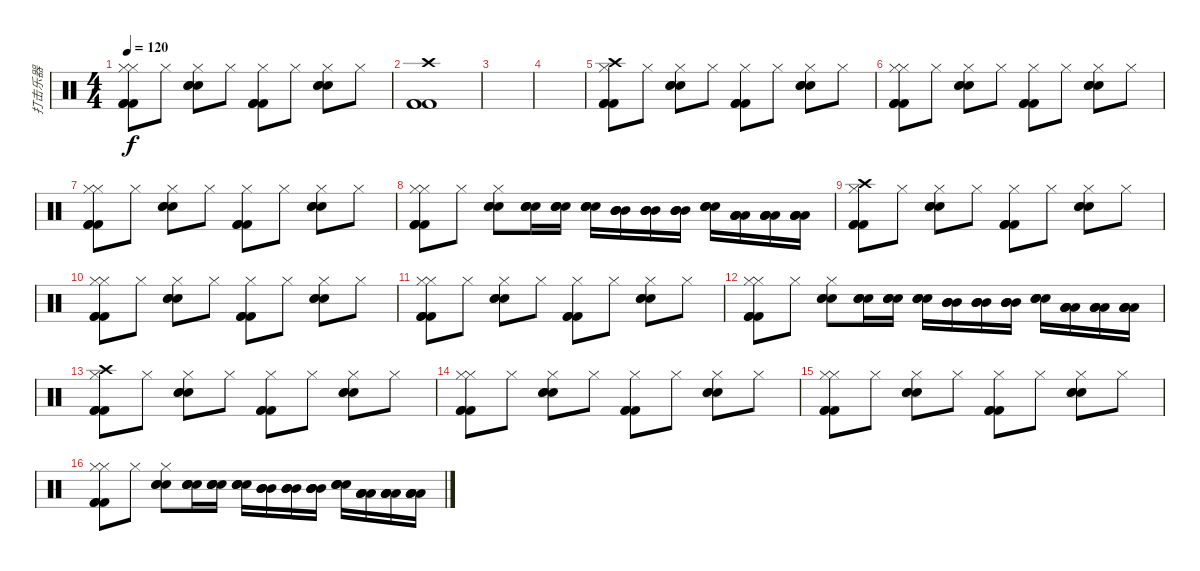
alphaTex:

\track ("打击乐器" "打击乐器") {instrument percussion}
\staff {score}
\articulation defaults
\ts (4 4)
\tempo 120
\clef neutral
\ks c
("Kick (hit) 2" "Kick (hit) 2" "Kick (hit) 2" "Hi-Hat (closed)" "Hi-Hat (closed)").8{dy f} "Hi-Hat (closed)".8 ("Snare (hit) 2" "Snare (hit) 2" "Snare (hit) 2" "Hi-Hat (closed)").8 "Hi-Hat (closed)".8 ("Kick (hit) 2" "Kick (hit) 2" "Kick (hit) 2" "Hi-Hat (closed)").8 "Hi-Hat (closed)".8 ("Snare (hit) 2" "Snare (hit) 2" "Snare (hit) 2" "Hi-Hat (closed)").8 "Hi-Hat (closed)".8 |
("Crash high (hit)" "Kick (hit) 2" "Kick (hit) 2" "Kick (hit) 2").1 |
|
|
("Kick (hit) 2" "Kick (hit) 2" "Kick (hit) 2" "Hi-Hat (closed)" "Crash high (hit)").8 "Hi-Hat (closed)".8 ("Snare (hit) 2" "Snare (hit) 2" "Snare (hit) 2" "Hi-Hat (closed)").8 "Hi-Hat (closed)".8 ("Kick (hit) 2" "Kick (hit) 2" "Kick (hit) 2" "Hi-Hat (closed)").8 "Hi-Hat (closed)".8 ("Snare (hit) 2" "Snare (hit) 2" "Snare (hit) 2" "Hi-Hat (closed)").8 "Hi-Hat (closed)".8 |
("Kick (hit) 2" "Kick (hit) 2" "Kick (hit) 2" "Hi-Hat (closed)" "Hi-Hat (closed)").8 "Hi-Hat (closed)".8 ("Snare (hit) 2" "Snare (hit) 2" "Snare (hit) 2" "Hi-Hat (closed)").8 "Hi-Hat (closed)".8 ("Kick (hit) 2" "Kick (hit) 2" "Kick (hit) 2" "Hi-Hat (closed)").8 "Hi-Hat (closed)".8 ("Snare (hit) 2" "Snare (hit) 2" "Snare (hit) 2" "Hi-Hat (closed)").8 "Hi-Hat (closed)".8 |
("Kick (hit) 2" "Kick (hit) 2" "Kick (hit) 2" "Hi-Hat (closed)" "Hi-Hat (closed)").8 "Hi-Hat (closed)".8 ("Snare (hit) 2" "Snare (hit) 2" "Snare (hit) 2" "Hi-Hat (closed)").8 "Hi-Hat (closed)".8 ("Kick (hit) 2" "Kick (hit) 2" "Kick (hit) 2" "Hi-Hat (closed)").8 "Hi-Hat (closed)".8 ("Snare (hit) 2" "Snare (hit) 2" "Snare (hit) 2" "Hi-Hat (closed)").8 "Hi-Hat (closed)".8 |
("Kick (hit) 2" "Kick (hit) 2" "Kick (hit) 2" "Hi-Hat (closed)" "Hi-Hat (closed)").8 "Hi-Hat (closed)".8 ("Snare (hit) 2" "Snare (hit) 2" "Snare (hit) 2" "Hi-Hat (closed)").8 ("Snare (hit) 2" "Snare (hit) 2" "Snare (hit) 2" "Snare (hit) 2").16 ("Snare (hit) 2" "Snare (hit) 2" "Snare (hit) 2" "Snare (hit) 2").16 ("Snare (hit) 2" "Snare (hit) 2" "Snare (hit) 2" "Snare (hit) 2").16 ("Mid Tom (hit)" "Mid Tom (hit)" "Mid Tom (hit)" "Mid Tom (hit)").16 ("Mid Tom (hit)" "Mid Tom (hit)" "Mid Tom (hit)" "Mid Tom (hit)").16 ("Mid Tom (hit)" "Mid Tom (hit)" "Mid Tom (hit)" "Mid Tom (hit)").16 ("Snare (hit) 2" "Snare (hit) 2" "Snare (hit) 2" "Snare (hit) 2").16 ("Low Tom (hit)" "Low Tom (hit)" "Low Tom (hit)" "Low Tom (hit)").16 ("Low Tom (hit)" "Low Tom (hit)" "Low Tom (hit)" "Low Tom (hit)").16 ("Low Tom (hit)" "Low Tom (hit)" "Low Tom (hit)" "Low Tom (hit)").16 |
("Kick (hit) 2" "Kick (hit) 2" "Kick (hit) 2" "Hi-Hat (closed)" "Crash high (hit)").8 "Hi-Hat (closed)".8 ("Snare (hit) 2" "Snare (hit) 2" "Snare (hit) 2" "Hi-Hat (closed)").8 "Hi-Hat (closed)".8 ("Kick (hit) 2" "Kick (hit) 2" "Kick (hit) 2" "Hi-Hat (closed)").8 "Hi-Hat (closed)".8 ("Snare (hit) 2" "Snare (hit) 2" "Snare (hit) 2" "Hi-Hat (closed)").8 "Hi-Hat (closed)".8 |
("Kick (hit) 2" "Kick (hit) 2" "Kick (hit) 2" "Hi-Hat (closed)" "Hi-Hat (closed)").8 "Hi-Hat (closed)".8 ("Snare (hit) 2" "Snare (hit) 2" "Snare (hit) 2" "Hi-Hat (closed)").8 "Hi-Hat (closed)".8 ("Kick (hit) 2" "Kick (hit) 2" "Kick (hit) 2" "Hi-Hat (closed)").8 "Hi-Hat (closed)".8 ("Snare (hit) 2" "Snare (hit) 2" "Snare (hit) 2" "Hi-Hat (closed)").8 "Hi-Hat (closed)".8 |
("Kick (hit) 2" "Kick (hit) 2" "Kick (hit) 2" "Hi-Hat (closed)" "Hi-Hat (closed)").8 "Hi-Hat (closed)".8 ("Snare (hit) 2" "Snare (hit) 2" "Snare (hit) 2" "Hi-Hat (closed)").8 "Hi-Hat (closed)".8 ("Kick (hit) 2" "Kick (hit) 2" "Kick (hit) 2" "Hi-Hat (closed)").8 "Hi-Hat (closed)".8 ("Snare (hit) 2" "Snare (hit) 2" "Snare (hit) 2" "Hi-Hat (closed)").8 "Hi-Hat (closed)".8 |
("Kick (hit) 2" "Kick (hit) 2" "Kick (hit) 2" "Hi-Hat (closed)" "Hi-Hat (closed)").8 "Hi-Hat (closed)".8 ("Snare (hit) 2" "Snare (hit) 2" "Snare (hit) 2" "Hi-Hat (closed)").8 ("Snare (hit) 2" "Snare (hit) 2" "Snare (hit) 2" "Snare (hit) 2").16 ("Snare (hit) 2" "Snare (hit) 2" "Snare (hit) 2" "Snare (hit) 2").16 ("Snare (hit) 2" "Snare (hit) 2" "Snare (hit) 2" "Snare (hit) 2").16 ("Mid Tom (hit)" "Mid Tom (hit)" "Mid Tom (hit)" "Mid Tom (hit)").16 ("Mid Tom (hit)" "Mid Tom (hit)" "Mid Tom (hit)" "Mid Tom (hit)").16 ("Mid Tom (hit)" "Mid Tom (hit)" "Mid Tom (hit)" "Mid Tom (hit)").16 ("Snare (hit) 2" "Snare (hit) 2" "Snare (hit) 2" "Snare (hit) 2").16 ("Low Tom (hit)" "Low Tom (hit)" "Low Tom (hit)" "Low Tom (hit)").16 ("Low Tom (hit)" "Low Tom (hit)" "Low Tom (hit)" "Low Tom (hit)").16 ("Low Tom (hit)" "Low Tom (hit)" "Low Tom (hit)" "Low Tom (hit)").16 |
("Kick (hit) 2" "Kick (hit) 2" "Kick (hit) 2" "Hi-Hat (closed)" "Crash high (hit)").8 "Hi-Hat (closed)".8 ("Snare (hit) 2" "Snare (hit) 2" "Snare (hit) 2" "Hi-Hat (closed)").8 "Hi-Hat (closed)".8 ("Kick (hit) 2" "Kick (hit) 2" "Kick (hit) 2" "Hi-Hat (closed)").8 "Hi-Hat (closed)".8 ("Snare (hit) 2" "Snare (hit) 2" "Snare (hit) 2" "Hi-Hat (closed)").8 "Hi-Hat (closed)".8 |
("Kick (hit) 2" "Kick (hit) 2" "Kick (hit) 2" "Hi-Hat (closed)" "Hi-Hat (closed)").8 "Hi-Hat (closed)".8 ("Snare (hit) 2" "Snare (hit) 2" "Snare (hit) 2" "Hi-Hat (closed)").8 "Hi-Hat (closed)".8 ("Kick (hit) 2" "Kick (hit) 2" "Kick (hit) 2" "Hi-Hat (closed)").8 "Hi-Hat (closed)".8 ("Snare (hit) 2" "Snare (hit) 2" "Snare (hit) 2" "Hi-Hat (closed)").8 "Hi-Hat (closed)".8 |
("Kick (hit) 2" "Kick (hit) 2" "Kick (hit) 2" "Hi-Hat (closed)" "Hi-Hat (closed)").8 "Hi-Hat (closed)".8 ("Snare (hit) 2" "Snare (hit) 2" "Snare (hit) 2" "Hi-Hat (closed)").8 "Hi-Hat (closed)".8 ("Kick (hit) 2" "Kick (hit) 2" "Kick (hit) 2" "Hi-Hat (closed)").8 "Hi-Hat (closed)".8 ("Snare (hit) 2" "Snare (hit) 2" "Snare (hit) 2" "Hi-Hat (closed)").8 "Hi-Hat (closed)".8 |
("Kick (hit) 2" "Kick (hit) 2" "Kick (hit) 2" "Hi-Hat (closed)" "Hi-Hat (closed)").8 "Hi-Hat (closed)".8 ("Snare (hit) 2" "Snare (hit) 2" "Snare (hit) 2" "Hi-Hat (closed)").8 ("Snare (hit) 2" "Snare (hit) 2" "Snare (hit) 2" "Snare (hit) 2").16 ("Snare (hit) 2" "Snare (hit) 2" "Snare (hit) 2" "Snare (hit) 2").16 ("Snare (hit) 2" "Snare (hit) 2" "Snare (hit) 2" "Snare (hit) 2").16 ("Mid Tom (hit)" "Mid Tom (hit)" "Mid Tom (hit)" "Mid Tom (hit)").16 ("Mid Tom (hit)" "Mid Tom (hit)" "Mid Tom (hit)" "Mid Tom (hit)").16 ("Mid Tom (hit)" "Mid Tom (hit)" "Mid Tom (hit)" "Mid Tom (hit)").16 ("Snare (hit) 2" "Snare (hit) 2" "Snare (hit) 2" "Snare (hit) 2").16 ("Low Tom (hit)" "Low Tom (hit)" "Low Tom (hit)" "Low Tom (hit)").16 ("Low Tom (hit)" "Low Tom (hit)" "Low Tom (hit)" "Low Tom (hit)").16 ("Low Tom (hit)" "Low Tom (hit)" "Low Tom (hit)" "Low Tom (hit)").16
